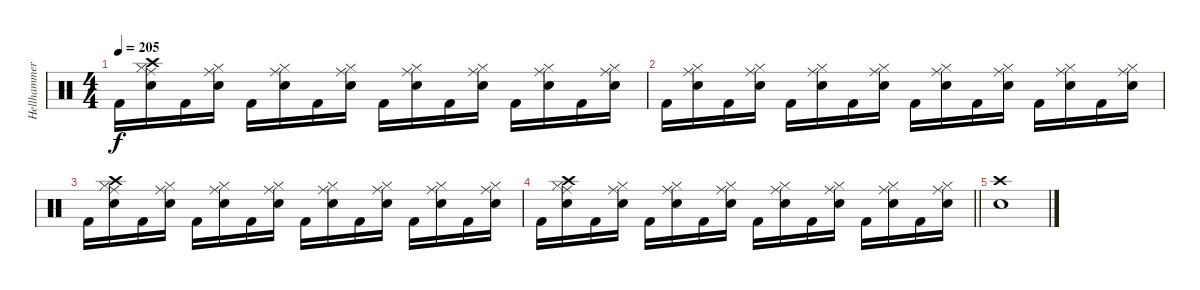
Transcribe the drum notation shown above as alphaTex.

\track ("Hellhammer" "Hellhammer") {instrument percussion}
\staff {score}
\articulation defaults
\ts (4 4)
\tempo 205
\clef neutral
\ks c "Kick (hit) 2".16{dy f}
("Ride (middle)" "Crash high (hit)" "Hi-Hat (closed)" "Electric Snare (hit)").16 "Kick (hit) 2".16 ("Ride (middle)" "Hi-Hat (closed)" "Electric Snare (hit)").16 "Kick (hit) 2".16 ("Ride (middle)" "Hi-Hat (closed)" "Electric Snare (hit)").16 "Kick (hit) 2".16 ("Ride (middle)" "Hi-Hat (closed)" "Electric Snare (hit)").16 "Kick (hit) 2".16 ("Ride (middle)" "Hi-Hat (closed)" "Electric Snare (hit)").16 "Kick (hit) 2".16 ("Ride (middle)" "Hi-Hat (closed)" "Electric Snare (hit)").16 "Kick (hit) 2".16 ("Ride (middle)" "Hi-Hat (closed)" "Electric Snare (hit)").16 "Kick (hit) 2".16 ("Ride (middle)" "Hi-Hat (closed)" "Electric Snare (hit)").16 |
"Kick (hit) 2".16 ("Ride (middle)" "Hi-Hat (closed)" "Electric Snare (hit)").16 "Kick (hit) 2".16 ("Ride (middle)" "Hi-Hat (closed)" "Electric Snare (hit)").16 "Kick (hit) 2".16 ("Ride (middle)" "Hi-Hat (closed)" "Electric Snare (hit)").16 "Kick (hit) 2".16 ("Ride (middle)" "Hi-Hat (closed)" "Electric Snare (hit)").16 "Kick (hit) 2".16 ("Ride (middle)" "Hi-Hat (closed)" "Electric Snare (hit)").16 "Kick (hit) 2".16 ("Ride (middle)" "Hi-Hat (closed)" "Electric Snare (hit)").16 "Kick (hit) 2".16 ("Ride (middle)" "Hi-Hat (closed)" "Electric Snare (hit)").16 "Kick (hit) 2".16 ("Ride (middle)" "Hi-Hat (closed)" "Electric Snare (hit)").16 |
"Kick (hit) 2".16 ("Ride (middle)" "Crash high (hit)" "Hi-Hat (closed)" "Electric Snare (hit)").16 "Kick (hit) 2".16 ("Ride (middle)" "Hi-Hat (closed)" "Electric Snare (hit)").16 "Kick (hit) 2".16 ("Ride (middle)" "Hi-Hat (closed)" "Electric Snare (hit)").16 "Kick (hit) 2".16 ("Ride (middle)" "Hi-Hat (closed)" "Electric Snare (hit)").16 "Kick (hit) 2".16 ("Ride (middle)" "Hi-Hat (closed)" "Electric Snare (hit)").16 "Kick (hit) 2".16 ("Ride (middle)" "Hi-Hat (closed)" "Electric Snare (hit)").16 "Kick (hit) 2".16 ("Ride (middle)" "Hi-Hat (closed)" "Electric Snare (hit)").16 "Kick (hit) 2".16 ("Ride (middle)" "Hi-Hat (closed)" "Electric Snare (hit)").16 |
\barLineRight lightlight "Kick (hit) 2".16
("Ride (middle)" "Crash high (hit)" "Hi-Hat (closed)" "Electric Snare (hit)").16 "Kick (hit) 2".16 ("Ride (middle)" "Hi-Hat (closed)" "Electric Snare (hit)").16 "Kick (hit) 2".16 ("Ride (middle)" "Hi-Hat (closed)" "Electric Snare (hit)").16 "Kick (hit) 2".16 ("Ride (middle)" "Hi-Hat (closed)" "Electric Snare (hit)").16 "Kick (hit) 2".16 ("Ride (middle)" "Hi-Hat (closed)" "Electric Snare (hit)").16 "Kick (hit) 2".16 ("Ride (middle)" "Hi-Hat (closed)" "Electric Snare (hit)").16 "Kick (hit) 2".16 ("Ride (middle)" "Hi-Hat (closed)" "Electric Snare (hit)").16 "Kick (hit) 2".16 ("Ride (middle)" "Hi-Hat (closed)" "Electric Snare (hit)").16 |
("Crash high (hit)" "Snare (hit) 2").1
